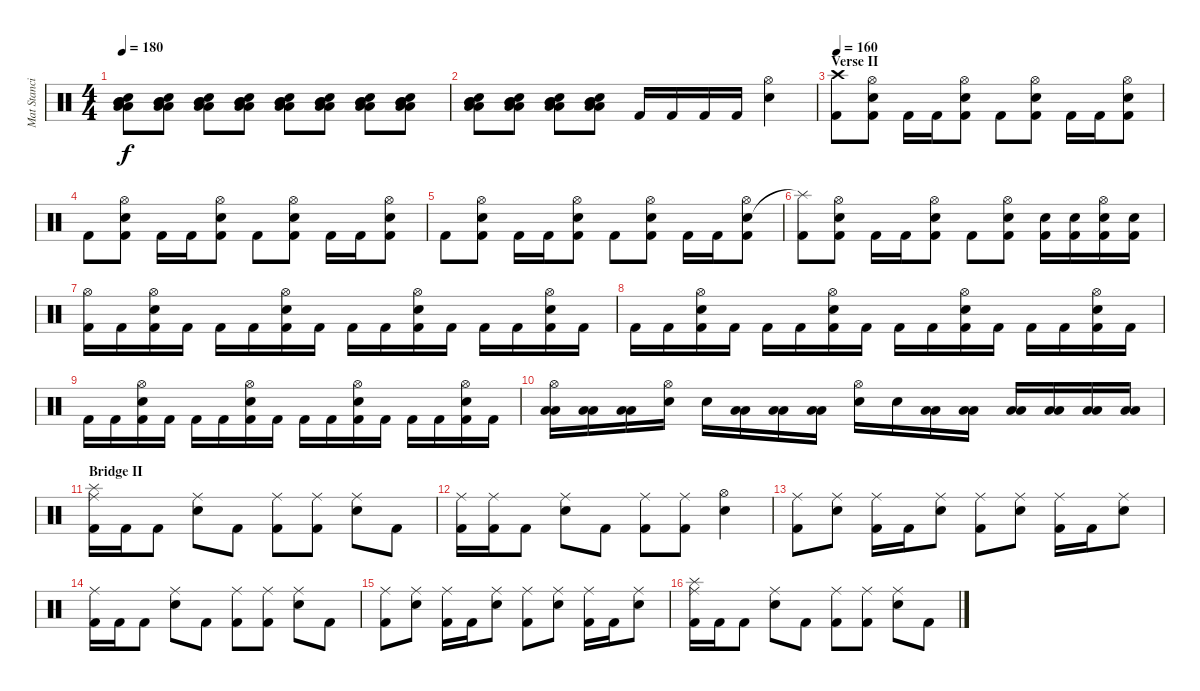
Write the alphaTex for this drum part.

\track ("Mat Stancioiu" "Mat Stanci") {instrument percussion}
\staff {score}
\articulation defaults
\ts (4 4)
\tempo 180
\clef neutral
\ks c
("Low Floor Tom (hit)" "Low Floor Tom (hit)" "Mid Tom (hit)" "Mid Tom (hit)" "Electric Snare (hit)").8{dy f volume 3} ("Low Floor Tom (hit)" "Low Floor Tom (hit)" "Mid Tom (hit)" "Mid Tom (hit)" "Electric Snare (hit)").8{volume 15} ("Low Floor Tom (hit)" "Low Floor Tom (hit)" "Mid Tom (hit)" "Mid Tom (hit)" "Electric Snare (hit)").8 ("Low Floor Tom (hit)" "Low Floor Tom (hit)" "Mid Tom (hit)" "Mid Tom (hit)" "Electric Snare (hit)").8 ("Low Floor Tom (hit)" "Low Floor Tom (hit)" "Mid Tom (hit)" "Mid Tom (hit)" "Electric Snare (hit)").8 ("Low Floor Tom (hit)" "Low Floor Tom (hit)" "Mid Tom (hit)" "Mid Tom (hit)" "Electric Snare (hit)").8 ("Low Floor Tom (hit)" "Low Floor Tom (hit)" "Mid Tom (hit)" "Mid Tom (hit)" "Electric Snare (hit)").8 ("Low Floor Tom (hit)" "Low Floor Tom (hit)" "Mid Tom (hit)" "Mid Tom (hit)" "Electric Snare (hit)").8 |
("Low Floor Tom (hit)" "Low Floor Tom (hit)" "Mid Tom (hit)" "Mid Tom (hit)" "Electric Snare (hit)").8 ("Low Floor Tom (hit)" "Low Floor Tom (hit)" "Mid Tom (hit)" "Mid Tom (hit)" "Electric Snare (hit)").8 ("Low Floor Tom (hit)" "Low Floor Tom (hit)" "Mid Tom (hit)" "Mid Tom (hit)" "Electric Snare (hit)").8 ("Low Floor Tom (hit)" "Low Floor Tom (hit)" "Mid Tom (hit)" "Mid Tom (hit)" "Electric Snare (hit)").8 "Kick (hit) 2".16 "Kick (hit) 2".16 "Kick (hit) 2".16 "Kick (hit) 2".16 ("Electric Snare (hit)" "Hi-Hat (open)").4 |
\section ("" "Verse II")
\tempo 160
("Kick (hit) 2" "Crash high (hit)").8 ("Kick (hit) 2" "Electric Snare (hit)" "Hi-Hat (open)").8 "Kick (hit) 2".16 "Kick (hit) 2".16 ("Kick (hit) 2" "Electric Snare (hit)" "Hi-Hat (open)").8 "Kick (hit) 2".8 ("Kick (hit) 2" "Electric Snare (hit)" "Hi-Hat (open)").8 "Kick (hit) 2".16 "Kick (hit) 2".16 ("Kick (hit) 2" "Electric Snare (hit)" "Hi-Hat (open)").8 |
"Kick (hit) 2".8 ("Kick (hit) 2" "Electric Snare (hit)" "Hi-Hat (open)").8 "Kick (hit) 2".16 "Kick (hit) 2".16 ("Kick (hit) 2" "Electric Snare (hit)" "Hi-Hat (open)").8 "Kick (hit) 2".8 ("Kick (hit) 2" "Electric Snare (hit)" "Hi-Hat (open)").8 "Kick (hit) 2".16 "Kick (hit) 2".16 ("Kick (hit) 2" "Electric Snare (hit)" "Hi-Hat (open)").8 |
"Kick (hit) 2".8 ("Kick (hit) 2" "Electric Snare (hit)" "Hi-Hat (open)").8 "Kick (hit) 2".16 "Kick (hit) 2".16 ("Kick (hit) 2" "Electric Snare (hit)" "Hi-Hat (open)").8 "Kick (hit) 2".8 ("Kick (hit) 2" "Electric Snare (hit)" "Hi-Hat (open)").8 "Kick (hit) 2".16 "Kick (hit) 2".16 ("Kick (hit) 2" "Electric Snare (hit)" "Hi-Hat (open)").8 |
("Kick (hit) 2" "Splash (hit)"{t}).8 ("Kick (hit) 2" "Electric Snare (hit)" "Hi-Hat (open)").8 "Kick (hit) 2".16 "Kick (hit) 2".16 ("Kick (hit) 2" "Electric Snare (hit)" "Hi-Hat (open)").8 "Kick (hit) 2".8 ("Kick (hit) 2" "Electric Snare (hit)" "Hi-Hat (open)").8 ("Kick (hit) 2" "Electric Snare (hit)").16 ("Kick (hit) 2" "Electric Snare (hit)").16 ("Kick (hit) 2" "Electric Snare (hit)" "Hi-Hat (open)").16 ("Kick (hit) 2" "Electric Snare (hit)").16 |
("Kick (hit) 2" "Hi-Hat (open)").16 "Kick (hit) 2".16 ("Electric Snare (hit)" "Kick (hit) 2" "Hi-Hat (open)").16 "Kick (hit) 2".16 "Kick (hit) 2".16 "Kick (hit) 2".16 ("Electric Snare (hit)" "Kick (hit) 2" "Hi-Hat (open)").16 "Kick (hit) 2".16 "Kick (hit) 2".16 "Kick (hit) 2".16 ("Electric Snare (hit)" "Kick (hit) 2" "Hi-Hat (open)").16 "Kick (hit) 2".16 "Kick (hit) 2".16 "Kick (hit) 2".16 ("Electric Snare (hit)" "Kick (hit) 2" "Hi-Hat (open)").16 "Kick (hit) 2".16 |
"Kick (hit) 2".16 "Kick (hit) 2".16 ("Electric Snare (hit)" "Kick (hit) 2" "Hi-Hat (open)").16 "Kick (hit) 2".16 "Kick (hit) 2".16 "Kick (hit) 2".16 ("Electric Snare (hit)" "Kick (hit) 2" "Hi-Hat (open)").16 "Kick (hit) 2".16 "Kick (hit) 2".16 "Kick (hit) 2".16 ("Electric Snare (hit)" "Kick (hit) 2" "Hi-Hat (open)").16 "Kick (hit) 2".16 "Kick (hit) 2".16 "Kick (hit) 2".16 ("Electric Snare (hit)" "Kick (hit) 2" "Hi-Hat (open)").16 "Kick (hit) 2".16 |
"Kick (hit) 2".16 "Kick (hit) 2".16 ("Electric Snare (hit)" "Kick (hit) 2" "Hi-Hat (open)").16 "Kick (hit) 2".16 "Kick (hit) 2".16 "Kick (hit) 2".16 ("Electric Snare (hit)" "Kick (hit) 2" "Hi-Hat (open)").16 "Kick (hit) 2".16 "Kick (hit) 2".16 "Kick (hit) 2".16 ("Electric Snare (hit)" "Kick (hit) 2" "Hi-Hat (open)").16 "Kick (hit) 2".16 "Kick (hit) 2".16 "Kick (hit) 2".16 ("Electric Snare (hit)" "Kick (hit) 2" "Hi-Hat (open)").16 "Kick (hit) 2".16 |
("Low Tom (hit)" "Low Tom (hit)" "Hi-Hat (open)").16 ("Low Tom (hit)" "Low Tom (hit)").16 ("Low Tom (hit)" "Low Tom (hit)").16 ("Electric Snare (hit)" "Hi-Hat (open)").16 "Electric Snare (hit)".16 ("Low Tom (hit)" "Low Tom (hit)").16 ("Low Tom (hit)" "Low Tom (hit)").16 ("Low Tom (hit)" "Low Tom (hit)").16 ("Electric Snare (hit)" "Hi-Hat (open)").16 "Electric Snare (hit)".16 ("Low Tom (hit)" "Low Tom (hit)").16 ("Low Tom (hit)" "Low Tom (hit)").16 ("Low Floor Tom (hit)" "Low Floor Tom (hit)").16 ("Low Floor Tom (hit)" "Low Floor Tom (hit)").16 ("Low Floor Tom (hit)" "Low Floor Tom (hit)").16 ("Low Floor Tom (hit)" "Low Floor Tom (hit)").16 |
\section ("" "Bridge II")
("Kick (hit) 2" "Ride (middle)" "Splash (hit)").16 "Kick (hit) 2".16 "Kick (hit) 2".8 ("Electric Snare (hit)" "Ride (middle)").8 "Kick (hit) 2".8 ("Kick (hit) 2" "Ride (middle)").8 ("Kick (hit) 2" "Ride (middle)").8 ("Electric Snare (hit)" "Ride (middle)").8 "Kick (hit) 2".8 |
("Kick (hit) 2" "Ride (middle)").16 ("Kick (hit) 2" "Ride (middle)").16 "Kick (hit) 2".8 ("Electric Snare (hit)" "Ride (middle)").8 "Kick (hit) 2".8 ("Kick (hit) 2" "Ride (middle)").8 ("Kick (hit) 2" "Ride (middle)").8 ("Electric Snare (hit)" "Hi-Hat (open)").4 |
("Kick (hit) 2" "Ride (middle)").8 ("Electric Snare (hit)" "Ride (middle)").8 ("Kick (hit) 2" "Ride (middle)").16 "Kick (hit) 2".16 ("Electric Snare (hit)" "Ride (middle)").8 ("Kick (hit) 2" "Ride (middle)").8 ("Electric Snare (hit)" "Ride (middle)").8 ("Kick (hit) 2" "Ride (middle)").16 "Kick (hit) 2".16 ("Electric Snare (hit)" "Ride (middle)").8 |
("Kick (hit) 2" "Ride (middle)").16 "Kick (hit) 2".16 "Kick (hit) 2".8 ("Electric Snare (hit)" "Ride (middle)").8 "Kick (hit) 2".8 ("Kick (hit) 2" "Ride (middle)").8 ("Kick (hit) 2" "Ride (middle)").8 ("Electric Snare (hit)" "Ride (middle)").8 "Kick (hit) 2".8 |
("Kick (hit) 2" "Ride (middle)").8 ("Electric Snare (hit)" "Ride (middle)").8 ("Kick (hit) 2" "Ride (middle)").16 "Kick (hit) 2".16 ("Electric Snare (hit)" "Ride (middle)").8 ("Kick (hit) 2" "Ride (middle)").8 ("Electric Snare (hit)" "Ride (middle)").8 ("Kick (hit) 2" "Ride (middle)").16 "Kick (hit) 2".16 ("Electric Snare (hit)" "Ride (middle)").8 |
("Kick (hit) 2" "Ride (middle)" "Splash (hit)").16 "Kick (hit) 2".16 "Kick (hit) 2".8 ("Electric Snare (hit)" "Ride (middle)").8 "Kick (hit) 2".8 ("Kick (hit) 2" "Ride (middle)").8 ("Kick (hit) 2" "Ride (middle)").8 ("Electric Snare (hit)" "Ride (middle)").8 "Kick (hit) 2".8
